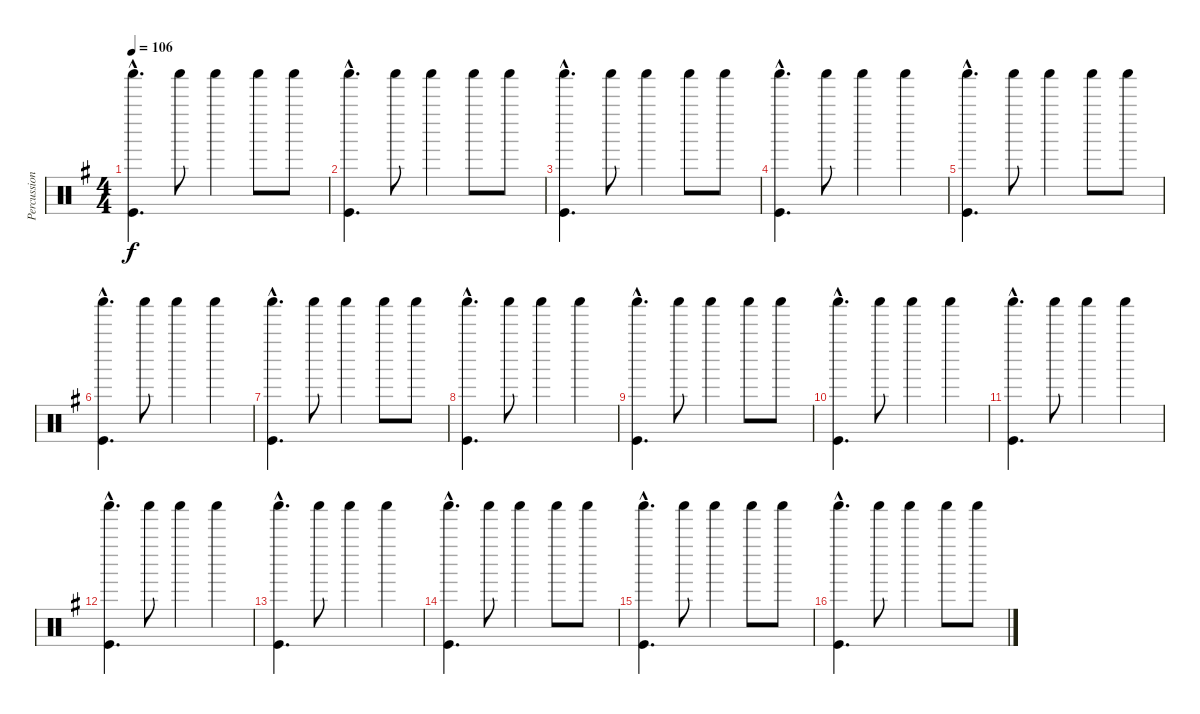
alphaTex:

\track ("Percussion" "Percussion") {instrument percussion}
\staff {score}
\articulation defaults
\ts (4 4)
\tempo 106
\clef neutral
\ks g
("Shaker (hit)"{hac} "Kick (hit)"{hac}).4{d dy f} "Shaker (hit)".8 "Shaker (hit)".4 "Shaker (hit)".8 "Shaker (hit)".8 |
("Shaker (hit)"{hac} "Kick (hit)"{hac}).4{d} "Shaker (hit)".8 "Shaker (hit)".4 "Shaker (hit)".8 "Shaker (hit)".8 |
("Shaker (hit)"{hac} "Kick (hit)"{hac}).4{d} "Shaker (hit)".8 "Shaker (hit)".4 "Shaker (hit)".8 "Shaker (hit)".8 |
("Shaker (hit)"{hac} "Kick (hit)"{hac}).4{d} "Shaker (hit)".8 "Shaker (hit)".4 "Shaker (hit)".4 |
("Shaker (hit)"{hac} "Kick (hit)"{hac}).4{d} "Shaker (hit)".8 "Shaker (hit)".4 "Shaker (hit)".8 "Shaker (hit)".8 |
("Shaker (hit)"{hac} "Kick (hit)"{hac}).4{d} "Shaker (hit)".8 "Shaker (hit)".4 "Shaker (hit)".4 |
("Shaker (hit)"{hac} "Kick (hit)"{hac}).4{d} "Shaker (hit)".8 "Shaker (hit)".4 "Shaker (hit)".8 "Shaker (hit)".8 |
("Shaker (hit)"{hac} "Kick (hit)"{hac}).4{d} "Shaker (hit)".8 "Shaker (hit)".4 "Shaker (hit)".4 |
("Shaker (hit)"{hac} "Kick (hit)"{hac}).4{d} "Shaker (hit)".8 "Shaker (hit)".4 "Shaker (hit)".8 "Shaker (hit)".8 |
("Shaker (hit)"{hac} "Kick (hit)"{hac}).4{d} "Shaker (hit)".8 "Shaker (hit)".4 "Shaker (hit)".4 |
("Shaker (hit)"{hac} "Kick (hit)"{hac}).4{d} "Shaker (hit)".8 "Shaker (hit)".4 "Shaker (hit)".4 |
("Shaker (hit)"{hac} "Kick (hit)"{hac}).4{d} "Shaker (hit)".8 "Shaker (hit)".4 "Shaker (hit)".4 |
("Shaker (hit)"{hac} "Kick (hit)"{hac}).4{d} "Shaker (hit)".8 "Shaker (hit)".4 "Shaker (hit)".4 |
("Shaker (hit)"{hac} "Kick (hit)"{hac}).4{d} "Shaker (hit)".8 "Shaker (hit)".4 "Shaker (hit)".8 "Shaker (hit)".8 |
("Shaker (hit)"{hac} "Kick (hit)"{hac}).4{d} "Shaker (hit)".8 "Shaker (hit)".4 "Shaker (hit)".8 "Shaker (hit)".8 |
("Shaker (hit)"{hac} "Kick (hit)"{hac}).4{d} "Shaker (hit)".8 "Shaker (hit)".4 "Shaker (hit)".8 "Shaker (hit)".8
